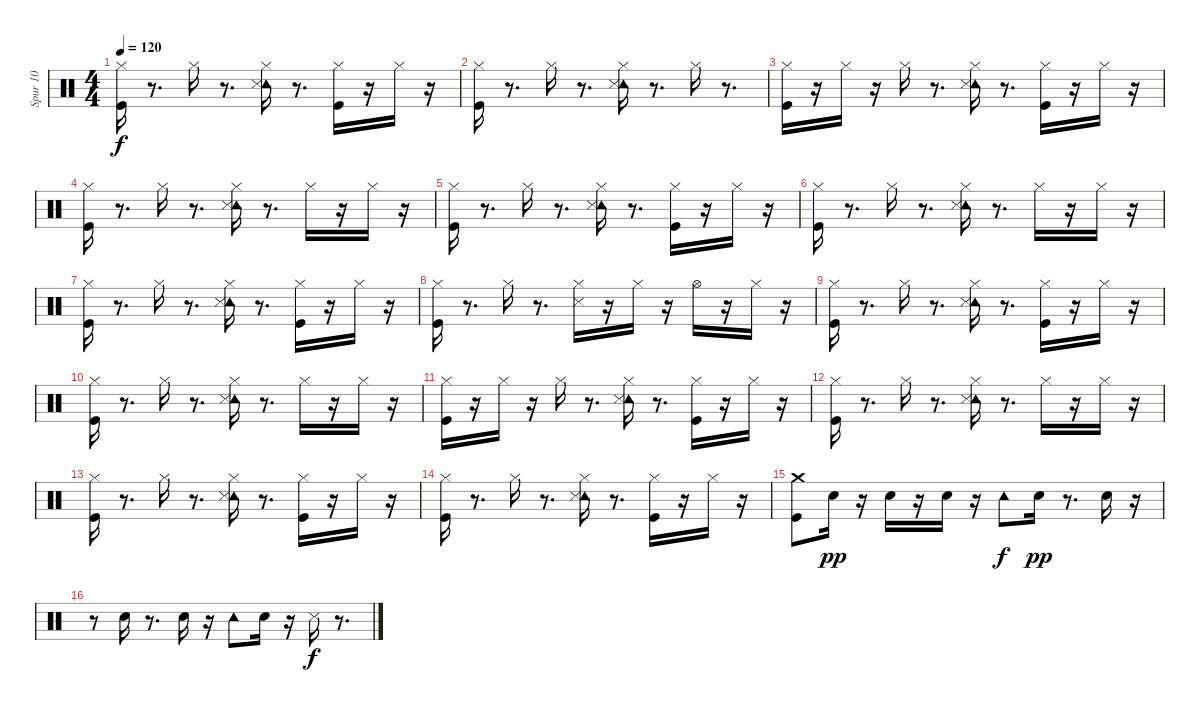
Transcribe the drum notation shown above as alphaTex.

\track ("Spur 10" "Spur 10") {instrument percussion}
\staff {score}
\articulation defaults
\ts (4 4)
\tempo 120
\clef neutral
\ks c
("Kick (hit)" "Hi-Hat (closed)").16{dy f} r.8{d} "Hi-Hat (closed)".16 r.8{d} ("Tambourine (hit)" "Snare (side stick) 3" "Hi-Hat (closed)").16 r.8{d} ("Kick (hit)" "Hi-Hat (closed)").16 r.16 "Hi-Hat (closed)".16 r.16 |
("Kick (hit)" "Hi-Hat (closed)").16 r.8{d} "Hi-Hat (closed)".16 r.8{d} ("Tambourine (hit)" "Snare (side stick) 3" "Hi-Hat (closed)").16 r.8{d} "Hi-Hat (closed)".16 r.8{d} |
("Kick (hit)" "Hi-Hat (closed)").16 r.16 "Hi-Hat (closed)".16 r.16 "Hi-Hat (closed)".16 r.8{d} ("Tambourine (hit)" "Snare (side stick) 3" "Hi-Hat (closed)").16 r.8{d} ("Kick (hit)" "Hi-Hat (closed)").16 r.16 "Hi-Hat (closed)".16 r.16 |
("Kick (hit)" "Hi-Hat (closed)").16 r.8{d} "Hi-Hat (closed)".16 r.8{d} ("Tambourine (hit)" "Snare (side stick) 3" "Hi-Hat (closed)").16 r.8{d} "Hi-Hat (closed)".16 r.16 "Hi-Hat (closed)".16 r.16 |
("Hi-Hat (closed)" "Kick (hit)").16 r.8{d} "Hi-Hat (closed)".16 r.8{d} ("Tambourine (hit)" "Snare (side stick) 3" "Hi-Hat (closed)").16 r.8{d} ("Kick (hit)" "Hi-Hat (closed)").16 r.16 "Hi-Hat (closed)".16 r.16 |
("Kick (hit)" "Hi-Hat (closed)").16 r.8{d} "Hi-Hat (closed)".16 r.8{d} ("Tambourine (hit)" "Snare (side stick) 3" "Hi-Hat (closed)").16 r.8{d} "Hi-Hat (closed)".16 r.16 "Hi-Hat (closed)".16 r.16 |
("Kick (hit)" "Hi-Hat (closed)").16 r.8{d} "Hi-Hat (closed)".16 r.8{d} ("Tambourine (hit)" "Snare (side stick) 3" "Hi-Hat (closed)").16 r.8{d} ("Kick (hit)" "Hi-Hat (closed)").16 r.16 "Hi-Hat (closed)".16 r.16 |
("Kick (hit)" "Hi-Hat (closed)").16 r.8{d} "Hi-Hat (closed)".16 r.8{d} ("Snare (side stick) 3" "Hi-Hat (closed)").16 r.16 "Hi-Hat (closed)".16 r.16 "Hi-Hat (open)".16 r.16 "Hi-Hat (closed)".16 r.16 |
("Kick (hit)" "Hi-Hat (closed)").16 r.8{d} "Hi-Hat (closed)".16 r.8{d} ("Tambourine (hit)" "Snare (side stick) 3" "Hi-Hat (closed)").16 r.8{d} ("Kick (hit)" "Hi-Hat (closed)").16 r.16 "Hi-Hat (closed)".16 r.16 |
("Kick (hit)" "Hi-Hat (closed)").16 r.8{d} "Hi-Hat (closed)".16 r.8{d} ("Tambourine (hit)" "Snare (side stick) 3" "Hi-Hat (closed)").16 r.8{d} "Hi-Hat (closed)".16 r.16 "Hi-Hat (closed)".16 r.16 |
("Kick (hit)" "Hi-Hat (closed)").16 r.16 "Hi-Hat (closed)".16 r.16 "Hi-Hat (closed)".16 r.8{d} ("Tambourine (hit)" "Snare (side stick) 3" "Hi-Hat (closed)").16 r.8{d} ("Kick (hit)" "Hi-Hat (closed)").16 r.16 "Hi-Hat (closed)".16 r.16 |
("Kick (hit)" "Hi-Hat (closed)").16 r.8{d} "Hi-Hat (closed)".16 r.8{d} ("Tambourine (hit)" "Snare (side stick) 3" "Hi-Hat (closed)").16 r.8{d} "Hi-Hat (closed)".16 r.16 "Hi-Hat (closed)".16 r.16 |
("Kick (hit)" "Hi-Hat (closed)").16 r.8{d} "Hi-Hat (closed)".16 r.8{d} ("Tambourine (hit)" "Snare (side stick) 3" "Hi-Hat (closed)").16 r.8{d} ("Kick (hit)" "Hi-Hat (closed)").16 r.16 "Hi-Hat (closed)".16 r.16 |
("Kick (hit)" "Hi-Hat (closed)").16 r.8{d} "Hi-Hat (closed)".16 r.8{d} ("Tambourine (hit)" "Snare (side stick) 3" "Hi-Hat (closed)").16 r.8{d} ("Kick (hit)" "Hi-Hat (closed)").16 r.16 "Hi-Hat (closed)".16 r.16 |
("Crash medium (hit)" "Kick (hit)").8 "Snare (hit)".16{dy pp} r.16 "Snare (hit)".16 r.16 "Snare (hit)".16 r.16 "Tambourine (hit)".8{dy f} "Snare (hit)".16{dy pp} r.8{d} "Snare (hit)".16 r.16 |
r.8 "Snare (hit)".16 r.8{d} "Snare (hit)".16 r.16 "Tambourine (hit)".8 "Snare (hit)".16 r.16 "Snare (side stick) 3".16{dy f} r.8{d}
